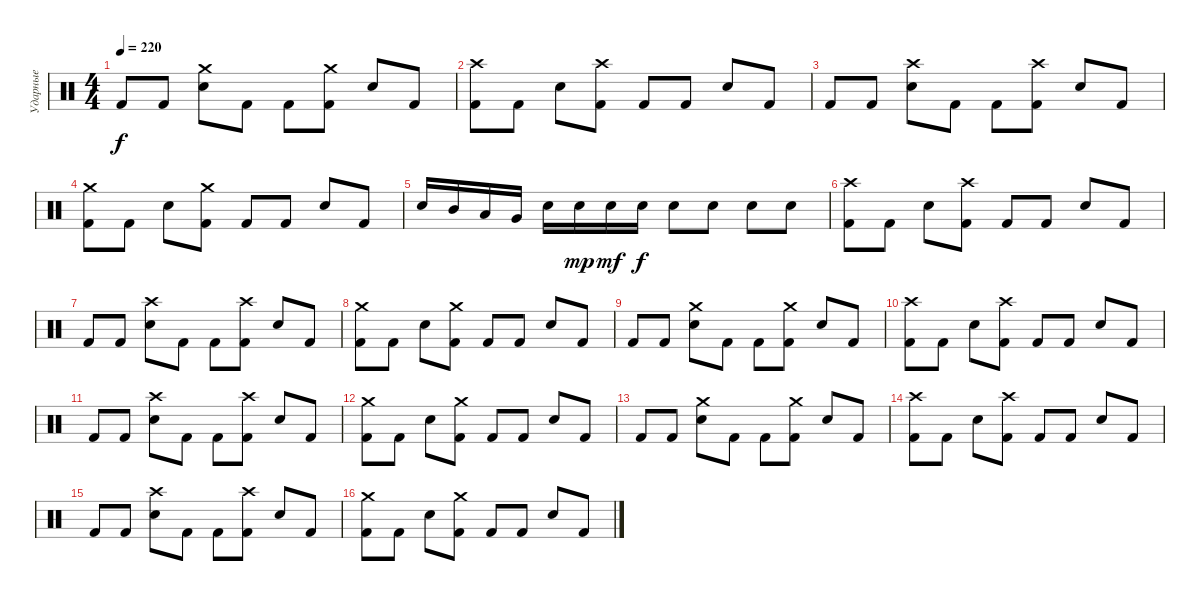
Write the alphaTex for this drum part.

\track ("Ударные" "Ударные") {instrument percussion}
\staff {score}
\articulation defaults
\ts (4 4)
\tempo 220
\clef neutral
\ks c "Kick (hit) 2".8{dy f} "Kick (hit) 2".8
("Crash medium (hit)" "Electric Snare (hit)").8 "Kick (hit) 2".8 "Kick (hit) 2".8 ("Crash medium (hit)" "Kick (hit) 2").8 "Electric Snare (hit)".8 "Kick (hit) 2".8 |
("Crash high (hit)" "Kick (hit) 2").8 "Kick (hit) 2".8 "Electric Snare (hit)".8 ("Crash high (hit)" "Kick (hit) 2").8 "Kick (hit) 2".8 "Kick (hit) 2".8 "Electric Snare (hit)".8 "Kick (hit) 2".8 |
"Kick (hit) 2".8 "Kick (hit) 2".8 ("Crash high (hit)" "Electric Snare (hit)").8 "Kick (hit) 2".8 "Kick (hit) 2".8 ("Crash high (hit)" "Kick (hit) 2").8 "Electric Snare (hit)".8 "Kick (hit) 2".8 |
("Crash medium (hit)" "Kick (hit) 2").8 "Kick (hit) 2".8 "Electric Snare (hit)".8 ("Crash medium (hit)" "Kick (hit) 2").8 "Kick (hit) 2".8 "Kick (hit) 2".8 "Electric Snare (hit)".8 "Kick (hit) 2".8 |
"Electric Snare (hit)".16 "Mid Tom (hit)".16 "Low Tom (hit)".16 "Very Low Tom (hit)".16 "Electric Snare (hit)".16 "Electric Snare (hit)".16{dy mp} "Electric Snare (hit)".16{dy mf} "Electric Snare (hit)".16{dy f} "Electric Snare (hit)".8 "Electric Snare (hit)".8 "Electric Snare (hit)".8 "Electric Snare (hit)".8 |
("Crash high (hit)" "Kick (hit) 2").8 "Kick (hit) 2".8 "Electric Snare (hit)".8 ("Crash high (hit)" "Kick (hit) 2").8 "Kick (hit) 2".8 "Kick (hit) 2".8 "Electric Snare (hit)".8 "Kick (hit) 2".8 |
"Kick (hit) 2".8 "Kick (hit) 2".8 ("Crash high (hit)" "Electric Snare (hit)").8 "Kick (hit) 2".8 "Kick (hit) 2".8 ("Crash high (hit)" "Kick (hit) 2").8 "Electric Snare (hit)".8 "Kick (hit) 2".8 |
("Crash medium (hit)" "Kick (hit) 2").8 "Kick (hit) 2".8 "Electric Snare (hit)".8 ("Crash medium (hit)" "Kick (hit) 2").8 "Kick (hit) 2".8 "Kick (hit) 2".8 "Electric Snare (hit)".8 "Kick (hit) 2".8 |
"Kick (hit) 2".8 "Kick (hit) 2".8 ("Crash medium (hit)" "Electric Snare (hit)").8 "Kick (hit) 2".8 "Kick (hit) 2".8 ("Crash medium (hit)" "Kick (hit) 2").8 "Electric Snare (hit)".8 "Kick (hit) 2".8 |
("Crash high (hit)" "Kick (hit) 2").8 "Kick (hit) 2".8 "Electric Snare (hit)".8 ("Crash high (hit)" "Kick (hit) 2").8 "Kick (hit) 2".8 "Kick (hit) 2".8 "Electric Snare (hit)".8 "Kick (hit) 2".8 |
"Kick (hit) 2".8 "Kick (hit) 2".8 ("Crash high (hit)" "Electric Snare (hit)").8 "Kick (hit) 2".8 "Kick (hit) 2".8 ("Crash high (hit)" "Kick (hit) 2").8 "Electric Snare (hit)".8 "Kick (hit) 2".8 |
("Crash medium (hit)" "Kick (hit) 2").8 "Kick (hit) 2".8 "Electric Snare (hit)".8 ("Crash medium (hit)" "Kick (hit) 2").8 "Kick (hit) 2".8 "Kick (hit) 2".8 "Electric Snare (hit)".8 "Kick (hit) 2".8 |
"Kick (hit) 2".8 "Kick (hit) 2".8 ("Crash medium (hit)" "Electric Snare (hit)").8 "Kick (hit) 2".8 "Kick (hit) 2".8 ("Crash medium (hit)" "Kick (hit) 2").8 "Electric Snare (hit)".8 "Kick (hit) 2".8 |
("Crash high (hit)" "Kick (hit) 2").8 "Kick (hit) 2".8 "Electric Snare (hit)".8 ("Crash high (hit)" "Kick (hit) 2").8 "Kick (hit) 2".8 "Kick (hit) 2".8 "Electric Snare (hit)".8 "Kick (hit) 2".8 |
"Kick (hit) 2".8 "Kick (hit) 2".8 ("Crash high (hit)" "Electric Snare (hit)").8 "Kick (hit) 2".8 "Kick (hit) 2".8 ("Crash high (hit)" "Kick (hit) 2").8 "Electric Snare (hit)".8 "Kick (hit) 2".8 |
("Crash medium (hit)" "Kick (hit) 2").8 "Kick (hit) 2".8 "Electric Snare (hit)".8 ("Crash medium (hit)" "Kick (hit) 2").8 "Kick (hit) 2".8 "Kick (hit) 2".8 "Electric Snare (hit)".8 "Kick (hit) 2".8
